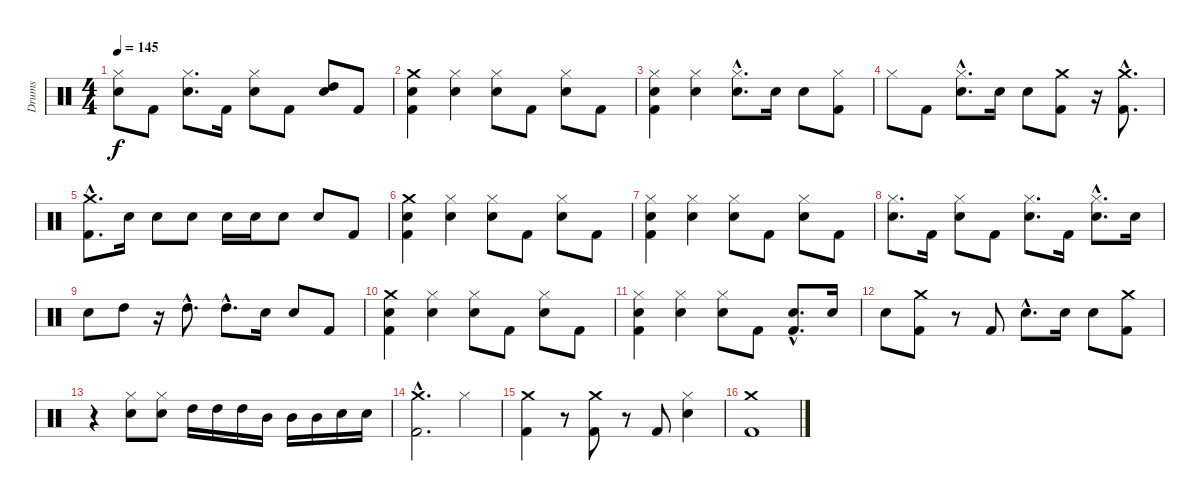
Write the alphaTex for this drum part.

\track ("Drums" "Drums") {instrument percussion}
\staff {score}
\articulation defaults
\ts (4 4)
\tempo 145
\clef neutral
\ks c
("Hi-Hat (closed)" "Snare (hit) 2").8{dy f} "Kick (hit) 2".8 ("Hi-Hat (closed)" "Snare (hit) 2").8{d} "Kick (hit) 2".16 ("Hi-Hat (closed)" "Snare (hit) 2").8 "Kick (hit) 2".8 ("High Tom (hit)" "Snare (hit) 2").8 "Kick (hit) 2".8 |
("Crash medium (hit)" "Snare (hit) 2" "Kick (hit) 2").4 ("Hi-Hat (closed)" "Snare (hit) 2").4 ("Hi-Hat (closed)" "Snare (hit) 2").8 "Kick (hit) 2".8 ("Hi-Hat (closed)" "Snare (hit) 2").8 "Kick (hit) 2".8 |
("Kick (hit) 2" "Snare (hit) 2" "Hi-Hat (closed)").4 ("Snare (hit) 2" "Hi-Hat (closed)").4 ("Snare (hit) 2"{hac} "Hi-Hat (closed)"{hac}).8{d} "Snare (hit) 2".16 "Snare (hit) 2".8 ("Hi-Hat (closed)" "Kick (hit) 2").8 |
"Hi-Hat (closed)".8 "Kick (hit) 2".8 ("Snare (hit) 2"{hac} "Hi-Hat (closed)"{hac}).8{d} "Snare (hit) 2".16 "Snare (hit) 2".8 ("Kick (hit) 2" "Crash medium (hit)").8 r.16 ("Crash medium (hit)"{hac} "Kick (hit) 2"{hac}).8{d} |
("Kick (hit) 2" "Crash medium (hit)"{hac}).8{d} "Snare (hit) 2".16 "Snare (hit) 2".8 "Snare (hit) 2".8 "Snare (hit) 2".16 "Snare (hit) 2".16 "Snare (hit) 2".8 "Snare (hit) 2".8 "Kick (hit) 2".8 |
("Kick (hit) 2" "Crash medium (hit)" "Snare (hit) 2").4 ("Hi-Hat (closed)" "Snare (hit) 2").4 ("Hi-Hat (closed)" "Snare (hit) 2").8 "Kick (hit) 2".8 ("Hi-Hat (closed)" "Snare (hit) 2").8 "Kick (hit) 2".8 |
("Kick (hit) 2" "Hi-Hat (closed)" "Snare (hit) 2").4 ("Hi-Hat (closed)" "Snare (hit) 2").4 ("Hi-Hat (closed)" "Snare (hit) 2").8 "Kick (hit) 2".8 ("Hi-Hat (closed)" "Snare (hit) 2").8 "Kick (hit) 2".8 |
("Hi-Hat (closed)" "Snare (hit) 2").8{d} "Kick (hit) 2".16 ("Hi-Hat (closed)" "Snare (hit) 2").8 "Kick (hit) 2".8 ("Hi-Hat (closed)" "Snare (hit) 2").8{d} "Kick (hit) 2".16 ("Hi-Hat (closed)"{hac} "Snare (hit) 2"{hac}).8{d} "Snare (hit) 2".16 |
"Snare (hit) 2".8 "High Tom (hit)".8 r.16 "High Tom (hit)"{hac}.8{d} "High Tom (hit)"{hac}.8{d} "Snare (hit) 2".16 "Snare (hit) 2".8 "Kick (hit) 2".8 |
("Kick (hit) 2" "Crash medium (hit)" "Snare (hit) 2").4 ("Hi-Hat (closed)" "Snare (hit) 2").4 ("Hi-Hat (closed)" "Snare (hit) 2").8 "Kick (hit) 2".8 ("Hi-Hat (closed)" "Snare (hit) 2").8 "Kick (hit) 2".8 |
("Hi-Hat (closed)" "Snare (hit) 2" "Kick (hit) 2").4 ("Hi-Hat (closed)" "Snare (hit) 2").4 ("Hi-Hat (closed)" "Snare (hit) 2").8 "Kick (hit) 2".8 ("Snare (hit) 2"{hac} "Kick (hit) 2").8{d} "Snare (hit) 2".16 |
"Snare (hit) 2".8 ("Kick (hit) 2" "Crash medium (hit)").8 r.8 "Kick (hit) 2".8 "Snare (hit) 2"{hac}.8{d} "Snare (hit) 2".16 "Snare (hit) 2".8 ("Crash medium (hit)" "Kick (hit) 2").8 |
r.4 ("Hi-Hat (closed)" "Snare (hit) 2").8 ("Hi-Hat (closed)" "Snare (hit) 2").8 "High Tom (hit)".16 "High Tom (hit)".16 "High Tom (hit)".16 "Mid Tom (hit)".16 "Mid Tom (hit)".16 "Mid Tom (hit)".16 "Snare (hit) 2".16 "Snare (hit) 2".16 |
("Crash medium (hit)"{hac} "Kick (hit) 2").2{d} "Hi-Hat (closed)".4 |
("Crash medium (hit)" "Kick (hit) 2").4 r.8 ("Crash medium (hit)" "Kick (hit) 2").8 r.8 "Kick (hit) 2".8 ("Hi-Hat (closed)" "Snare (hit) 2").4 |
("Crash medium (hit)" "Kick (hit) 2").1
